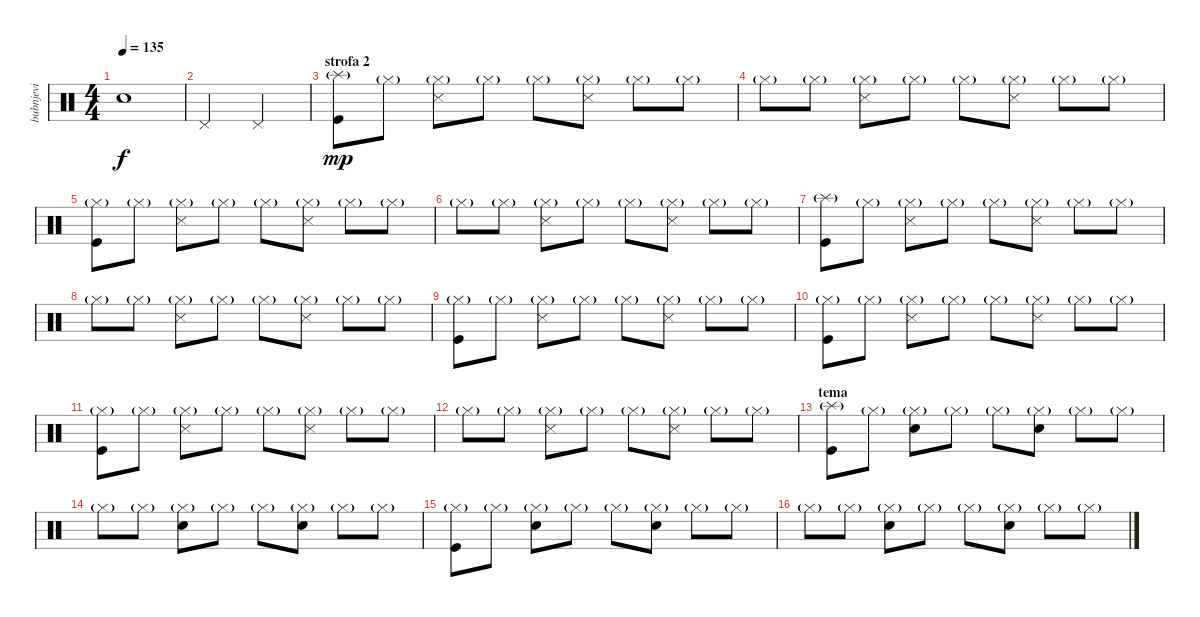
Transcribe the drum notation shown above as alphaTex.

\track ("bubnjevi" "bubnjevi") {instrument percussion}
\staff {score}
\articulation defaults
\ts (4 4)
\tempo 135
\clef neutral
\ks c "Snare (hit)"{t}.1{dy f}
|
"Pedal Hi-Hat (hit)".2 "Pedal Hi-Hat (hit)".2 |
\section ("" "strofa 2")
("Splash (hit)"{g} "Kick (hit)").8{dy mp} "Hi-Hat (closed)"{g}.8 ("Hi-Hat (closed)"{g} "Snare (side stick) 3").8 "Hi-Hat (closed)"{g}.8 "Hi-Hat (closed)"{g}.8 ("Hi-Hat (closed)"{g} "Snare (side stick) 3").8 "Hi-Hat (closed)"{g}.8 "Hi-Hat (closed)"{g}.8 |
"Hi-Hat (closed)"{g}.8 "Hi-Hat (closed)"{g}.8 ("Hi-Hat (closed)"{g} "Snare (side stick) 3").8 "Hi-Hat (closed)"{g}.8 "Hi-Hat (closed)"{g}.8 ("Hi-Hat (closed)"{g} "Snare (side stick) 3").8 "Hi-Hat (closed)"{g}.8 "Hi-Hat (closed)"{g}.8 |
("Hi-Hat (closed)"{g} "Kick (hit)").8 "Hi-Hat (closed)"{g}.8 ("Hi-Hat (closed)"{g} "Snare (side stick) 3").8 "Hi-Hat (closed)"{g}.8 "Hi-Hat (closed)"{g}.8 ("Hi-Hat (closed)"{g} "Snare (side stick) 3").8 "Hi-Hat (closed)"{g}.8 "Hi-Hat (closed)"{g}.8 |
"Hi-Hat (closed)"{g}.8 "Hi-Hat (closed)"{g}.8 ("Hi-Hat (closed)"{g} "Snare (side stick) 3").8 "Hi-Hat (closed)"{g}.8 "Hi-Hat (closed)"{g}.8 ("Hi-Hat (closed)"{g} "Snare (side stick) 3").8 "Hi-Hat (closed)"{g}.8 "Hi-Hat (closed)"{g}.8 |
("Splash (hit)"{g} "Kick (hit)").8 "Hi-Hat (closed)"{g}.8 ("Hi-Hat (closed)"{g} "Snare (side stick) 3").8 "Hi-Hat (closed)"{g}.8 "Hi-Hat (closed)"{g}.8 ("Hi-Hat (closed)"{g} "Snare (side stick) 3").8 "Hi-Hat (closed)"{g}.8 "Hi-Hat (closed)"{g}.8 |
"Hi-Hat (closed)"{g}.8 "Hi-Hat (closed)"{g}.8 ("Hi-Hat (closed)"{g} "Snare (side stick) 3").8 "Hi-Hat (closed)"{g}.8 "Hi-Hat (closed)"{g}.8 ("Hi-Hat (closed)"{g} "Snare (side stick) 3").8 "Hi-Hat (closed)"{g}.8 "Hi-Hat (closed)"{g}.8 |
("Hi-Hat (closed)"{g} "Kick (hit)").8 "Hi-Hat (closed)"{g}.8 ("Hi-Hat (closed)"{g} "Snare (side stick) 3").8 "Hi-Hat (closed)"{g}.8 "Hi-Hat (closed)"{g}.8 ("Hi-Hat (closed)"{g} "Snare (side stick) 3").8 "Hi-Hat (closed)"{g}.8 "Hi-Hat (closed)"{g}.8 |
("Hi-Hat (closed)"{g} "Kick (hit)").8 "Hi-Hat (closed)"{g}.8 ("Hi-Hat (closed)"{g} "Snare (side stick) 3").8 "Hi-Hat (closed)"{g}.8 "Hi-Hat (closed)"{g}.8 ("Hi-Hat (closed)"{g} "Snare (side stick) 3").8 "Hi-Hat (closed)"{g}.8 "Hi-Hat (closed)"{g}.8 |
("Hi-Hat (closed)"{g} "Kick (hit)").8 "Hi-Hat (closed)"{g}.8 ("Hi-Hat (closed)"{g} "Snare (side stick) 3").8 "Hi-Hat (closed)"{g}.8 "Hi-Hat (closed)"{g}.8 ("Hi-Hat (closed)"{g} "Snare (side stick) 3").8 "Hi-Hat (closed)"{g}.8 "Hi-Hat (closed)"{g}.8 |
"Hi-Hat (closed)"{g}.8 "Hi-Hat (closed)"{g}.8 ("Hi-Hat (closed)"{g} "Snare (side stick) 3").8 "Hi-Hat (closed)"{g}.8 "Hi-Hat (closed)"{g}.8 ("Hi-Hat (closed)"{g} "Snare (side stick) 3").8 "Hi-Hat (closed)"{g}.8 "Hi-Hat (closed)"{g}.8 |
\section ("" "tema")
("Splash (hit)"{g} "Kick (hit)").8 "Hi-Hat (closed)"{g}.8 ("Hi-Hat (closed)"{g} "Electric Snare (hit)").8 "Hi-Hat (closed)"{g}.8 "Hi-Hat (closed)"{g}.8 ("Hi-Hat (closed)"{g} "Electric Snare (hit)").8 "Hi-Hat (closed)"{g}.8 "Hi-Hat (closed)"{g}.8 |
"Hi-Hat (closed)"{g}.8 "Hi-Hat (closed)"{g}.8 ("Hi-Hat (closed)"{g} "Electric Snare (hit)").8 "Hi-Hat (closed)"{g}.8 "Hi-Hat (closed)"{g}.8 ("Hi-Hat (closed)"{g} "Electric Snare (hit)").8 "Hi-Hat (closed)"{g}.8 "Hi-Hat (closed)"{g}.8 |
("Hi-Hat (closed)"{g} "Kick (hit)").8 "Hi-Hat (closed)"{g}.8 ("Hi-Hat (closed)"{g} "Electric Snare (hit)").8 "Hi-Hat (closed)"{g}.8 "Hi-Hat (closed)"{g}.8 ("Hi-Hat (closed)"{g} "Electric Snare (hit)").8 "Hi-Hat (closed)"{g}.8 "Hi-Hat (closed)"{g}.8 |
"Hi-Hat (closed)"{g}.8 "Hi-Hat (closed)"{g}.8 ("Hi-Hat (closed)"{g} "Electric Snare (hit)").8 "Hi-Hat (closed)"{g}.8 "Hi-Hat (closed)"{g}.8 ("Hi-Hat (closed)"{g} "Electric Snare (hit)").8 "Hi-Hat (closed)"{g}.8 "Hi-Hat (closed)"{g}.8
